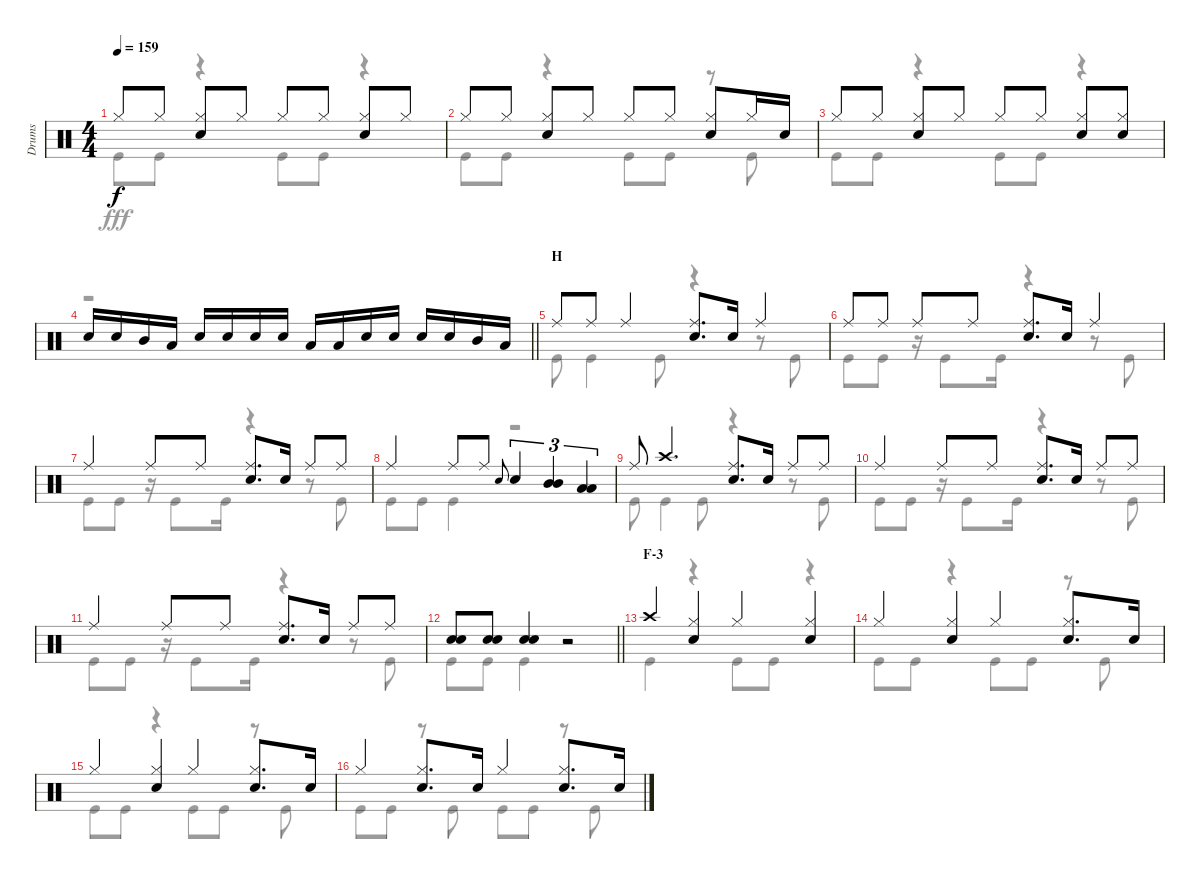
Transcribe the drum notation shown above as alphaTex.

\track ("Drums" "Drums") {instrument percussion}
\staff {score}
\articulation defaults
\voice
\ts (4 4)
\tempo 159
\clef neutral
\ks c "Hi-Hat (closed)".8{dy f} "Hi-Hat (closed)".8
("Hi-Hat (closed)" "Snare (hit) 2").8 "Hi-Hat (closed)".8 "Hi-Hat (closed)".8 "Hi-Hat (closed)".8 ("Hi-Hat (closed)" "Snare (hit) 2").8 "Hi-Hat (closed)".8 |
"Hi-Hat (closed)".8 "Hi-Hat (closed)".8 ("Hi-Hat (closed)" "Snare (hit) 2").8 "Hi-Hat (closed)".8 "Hi-Hat (closed)".8 "Hi-Hat (closed)".8 ("Hi-Hat (closed)" "Snare (hit) 2").8 "Hi-Hat (closed)".16 "Snare (hit) 2".16 |
"Hi-Hat (closed)".8 "Hi-Hat (closed)".8 ("Hi-Hat (closed)" "Snare (hit) 2").8 "Hi-Hat (closed)".8 "Hi-Hat (closed)".8 "Hi-Hat (closed)".8 ("Hi-Hat (closed)" "Snare (hit) 2").8 ("Hi-Hat (closed)" "Snare (hit) 2").8 |
\barLineRight lightlight "Snare (hit) 2".16 "Snare (hit) 2".16 "Mid Tom (hit)".16 "Low Tom (hit)".16 "Snare (hit) 2".16 "Snare (hit) 2".16 "Snare (hit) 2".16 "Snare (hit) 2".16 "Low Tom (hit)".16 "Low Tom (hit)".16 "Snare (hit) 2".16 "Snare (hit) 2".16 "Snare (hit) 2".16 "Snare (hit) 2".16 "Mid Tom (hit)".16 "Low Tom (hit)".16
|
\section ("" "H")
"Ride (middle)".8 "Ride (middle)".8 "Ride (middle)".4 ("Ride (middle)" "Snare (hit) 2").8{d} "Snare (hit) 2".16 "Ride (middle)".4 |
"Ride (middle)".8 "Ride (middle)".8 "Ride (middle)".8 "Ride (middle)".8 ("Ride (middle)" "Snare (hit) 2").8{d} "Snare (hit) 2".16 "Ride (middle)".4 |
"Ride (middle)".4 "Ride (middle)".8 "Ride (middle)".8 ("Ride (middle)" "Snare (hit) 2").8{d} "Snare (hit) 2".16 "Ride (middle)".8 "Ride (middle)".8 |
"Ride (middle)".4 "Ride (middle)".8 "Ride (middle)".8 "Snare (hit) 2".8{gr onbeat} "Snare (hit) 2".4{tu (3 2)} ("Mid Tom (hit)" "Mid Tom (hit)").4{tu (3 2)} ("Low Tom (hit)" "Low Tom (hit)").4{tu (3 2)} |
"Ride (middle)".8 "Crash high (hit)".4{d} ("Ride (middle)" "Snare (hit) 2").8{d} "Snare (hit) 2".16 "Ride (middle)".8 "Ride (middle)".8 |
"Ride (middle)".4 "Ride (middle)".8 "Ride (middle)".8 ("Ride (middle)" "Snare (hit) 2").8{d} "Snare (hit) 2".16 "Ride (middle)".8 "Ride (middle)".8 |
"Ride (middle)".4 "Ride (middle)".8 "Ride (middle)".8 ("Ride (middle)" "Snare (hit) 2").8{d} "Snare (hit) 2".16 "Ride (middle)".8 "Ride (middle)".8 |
\barLineRight lightlight
("Snare (hit) 2" "Snare (hit) 2").8 ("Snare (hit) 2" "Snare (hit) 2").8 ("Snare (hit) 2" "Snare (hit) 2").4 r.2 |
\section ("" "F-3")
"Crash high (hit)".4 ("Hi-Hat (closed)" "Snare (hit) 2").4 "Hi-Hat (closed)".4 ("Hi-Hat (closed)" "Snare (hit) 2").4 |
"Hi-Hat (closed)".4 ("Hi-Hat (closed)" "Snare (hit) 2").4 "Hi-Hat (closed)".4 ("Hi-Hat (closed)" "Snare (hit) 2").8{d} "Snare (hit) 2".16 |
"Hi-Hat (closed)".4 ("Hi-Hat (closed)" "Snare (hit) 2").4 "Hi-Hat (closed)".4 ("Hi-Hat (closed)" "Snare (hit) 2").8{d} "Snare (hit) 2".16 |
"Hi-Hat (closed)".4 ("Hi-Hat (closed)" "Snare (hit) 2").8{d} "Snare (hit) 2".16 "Hi-Hat (closed)".4 ("Hi-Hat (closed)" "Snare (hit) 2").8{d} "Snare (hit) 2".16
\voice
\clef neutral
\ottava regular
\simile none
\ks c "Kick (hit)".8{dy fff} "Kick (hit)".8
r.4 "Kick (hit)".8 "Kick (hit)".8 r.4 |
"Kick (hit)".8 "Kick (hit)".8 r.4 "Kick (hit)".8 "Kick (hit)".8 r.8 "Kick (hit)".8 |
"Kick (hit)".8 "Kick (hit)".8 r.4 "Kick (hit)".8 "Kick (hit)".8 r.4 |
\barLineRight lightlight
r.1 |
"Kick (hit)".8 "Kick (hit)".4 "Kick (hit)".8 r.4 r.8 "Kick (hit)".8 |
"Kick (hit)".8 "Kick (hit)".8 r.16 "Kick (hit)".8 "Kick (hit)".16 r.4 r.8 "Kick (hit)".8 |
"Kick (hit)".8 "Kick (hit)".8 r.16 "Kick (hit)".8 "Kick (hit)".16 r.4 r.8 "Kick (hit)".8 |
"Kick (hit)".8 "Kick (hit)".8 "Kick (hit)".4 r.2 |
"Kick (hit)".8 "Kick (hit)".4 "Kick (hit)".8 r.4 r.8 "Kick (hit)".8 |
"Kick (hit)".8 "Kick (hit)".8 r.16 "Kick (hit)".8 "Kick (hit)".16 r.4 r.8 "Kick (hit)".8 |
"Kick (hit)".8 "Kick (hit)".8 r.16 "Kick (hit)".8 "Kick (hit)".16 r.4 r.8 "Kick (hit)".8 |
\barLineRight lightlight "Kick (hit)".8 "Kick (hit)".8 "Kick (hit)".4
r.2 |
"Kick (hit)".4 r.4 "Kick (hit)".8 "Kick (hit)".8 r.4 |
"Kick (hit)".8 "Kick (hit)".8 r.4 "Kick (hit)".8 "Kick (hit)".8 r.8 "Kick (hit)".8 |
"Kick (hit)".8 "Kick (hit)".8 r.4 "Kick (hit)".8 "Kick (hit)".8 r.8 "Kick (hit)".8 |
"Kick (hit)".8 "Kick (hit)".8 r.8 "Kick (hit)".8 "Kick (hit)".8 "Kick (hit)".8 r.8 "Kick (hit)".8
